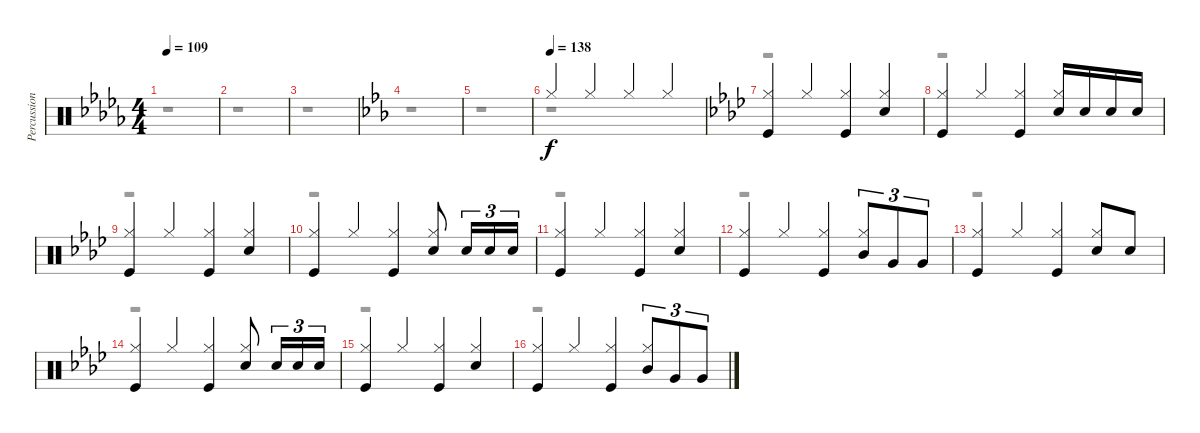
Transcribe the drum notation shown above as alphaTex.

\track ("Percussion" "Percussion") {instrument percussion}
\staff {score}
\articulation defaults
\voice
\ts (4 4)
\tempo 109
\clef neutral
\ks bbminor
|
|
|
\ks eb
|
|
\tempo (138)
"Hi-Hat (closed)".4 "Hi-Hat (closed)".4 "Hi-Hat (closed)".4 "Hi-Hat (closed)".4 |
\ks ab
("Hi-Hat (closed)" "Kick (hit)").4 "Hi-Hat (closed)".4 ("Hi-Hat (closed)" "Kick (hit)").4 ("Hi-Hat (closed)" "Snare (hit) 2").4 |
("Hi-Hat (closed)" "Kick (hit)").4 "Hi-Hat (closed)".4 ("Hi-Hat (closed)" "Kick (hit)").4 ("Hi-Hat (closed)" "Electric Snare (hit)").16 "Electric Snare (hit)".16 "Electric Snare (hit)".16 "Electric Snare (hit)".16 |
("Hi-Hat (closed)" "Kick (hit)").4 "Hi-Hat (closed)".4 ("Hi-Hat (closed)" "Kick (hit)").4 ("Hi-Hat (closed)" "Snare (hit) 2").4 |
("Hi-Hat (closed)" "Kick (hit)").4 "Hi-Hat (closed)".4 ("Hi-Hat (closed)" "Kick (hit)").4 ("Hi-Hat (closed)" "Snare (hit) 2").8 "Electric Snare (hit)".16{tu (3 2)} "Electric Snare (hit)".16{tu (3 2)} "Electric Snare (hit)".16{tu (3 2)} |
("Hi-Hat (closed)" "Kick (hit)").4 "Hi-Hat (closed)".4 ("Hi-Hat (closed)" "Kick (hit)").4 ("Hi-Hat (closed)" "Snare (hit) 2").4 |
("Hi-Hat (closed)" "Kick (hit)").4 "Hi-Hat (closed)".4 ("Hi-Hat (closed)" "Kick (hit)").4 ("Hi-Hat (closed)" "Mid Tom (hit)").8{tu (3 2)} "Very Low Tom (hit)".8{tu (3 2)} "Very Low Tom (hit)".8{tu (3 2)} |
("Hi-Hat (closed)" "Kick (hit)").4 "Hi-Hat (closed)".4 ("Hi-Hat (closed)" "Kick (hit)").4 ("Hi-Hat (closed)" "Snare (hit) 2").8 "Electric Snare (hit)".8 |
("Hi-Hat (closed)" "Kick (hit)").4 "Hi-Hat (closed)".4 ("Hi-Hat (closed)" "Kick (hit)").4 ("Hi-Hat (closed)" "Snare (hit) 2").8 "Electric Snare (hit)".16{tu (3 2)} "Electric Snare (hit)".16{tu (3 2)} "Electric Snare (hit)".16{tu (3 2)} |
("Hi-Hat (closed)" "Kick (hit)").4 "Hi-Hat (closed)".4 ("Hi-Hat (closed)" "Kick (hit)").4 ("Hi-Hat (closed)" "Snare (hit) 2").4 |
("Hi-Hat (closed)" "Kick (hit)").4 "Hi-Hat (closed)".4 ("Hi-Hat (closed)" "Kick (hit)").4 ("Hi-Hat (closed)" "Mid Tom (hit)").8{tu (3 2)} "Very Low Tom (hit)".8{tu (3 2)} "Very Low Tom (hit)".8{tu (3 2)}
\voice
\clef neutral
\ottava regular
\simile none
\ks bbminor
r.1{dy f} |
r.1 |
r.1 |
\ks eb
r.1 |
r.1 |
r.1 |
\ks ab
r.1 |
r.1 |
r.1 |
r.1 |
r.1 |
r.1 |
r.1 |
r.1 |
r.1 |
r.1
